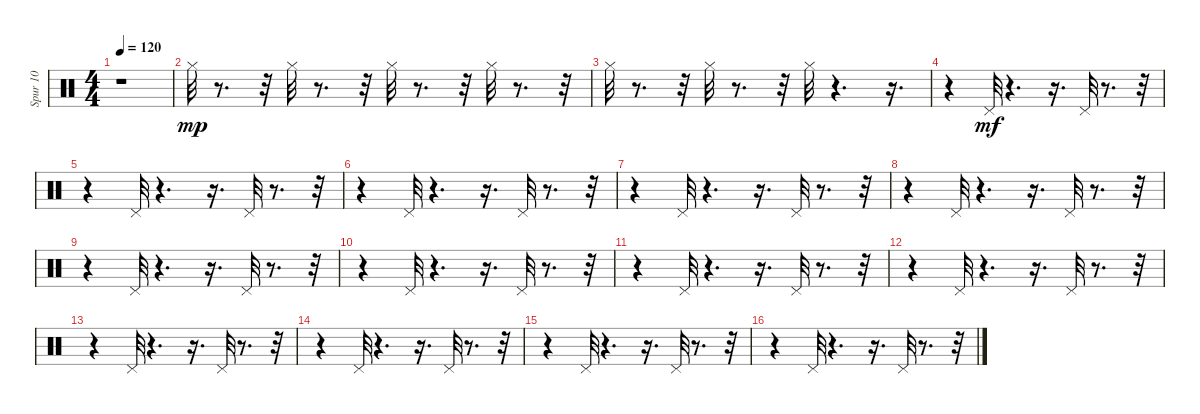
\track ("Spur 10" "Spur 10") {instrument percussion}
\staff {score}
\articulation defaults
\ts (4 4)
\tempo 120
\clef neutral
\ks c
r.1{dy mp} |
"Hi-Hat (closed)".32 r.8{d} r.32 "Hi-Hat (closed)".32 r.8{d} r.32 "Hi-Hat (closed)".32 r.8{d} r.32 "Hi-Hat (closed)".32 r.8{d} r.32 |
"Hi-Hat (closed)".32 r.8{d} r.32 "Hi-Hat (closed)".32 r.8{d} r.32 "Hi-Hat (closed)".32 r.4{d} r.16{d} |
r.4 "Pedal Hi-Hat (hit)".32{dy mf} r.4{d} r.16{d} "Pedal Hi-Hat (hit)".32 r.8{d} r.32 |
r.4 "Pedal Hi-Hat (hit)".32 r.4{d} r.16{d} "Pedal Hi-Hat (hit)".32 r.8{d} r.32 |
r.4 "Pedal Hi-Hat (hit)".32 r.4{d} r.16{d} "Pedal Hi-Hat (hit)".32 r.8{d} r.32 |
r.4 "Pedal Hi-Hat (hit)".32 r.4{d} r.16{d} "Pedal Hi-Hat (hit)".32 r.8{d} r.32 |
r.4 "Pedal Hi-Hat (hit)".32 r.4{d} r.16{d} "Pedal Hi-Hat (hit)".32 r.8{d} r.32 |
r.4 "Pedal Hi-Hat (hit)".32 r.4{d} r.16{d} "Pedal Hi-Hat (hit)".32 r.8{d} r.32 |
r.4 "Pedal Hi-Hat (hit)".32 r.4{d} r.16{d} "Pedal Hi-Hat (hit)".32 r.8{d} r.32 |
r.4 "Pedal Hi-Hat (hit)".32 r.4{d} r.16{d} "Pedal Hi-Hat (hit)".32 r.8{d} r.32 |
r.4 "Pedal Hi-Hat (hit)".32 r.4{d} r.16{d} "Pedal Hi-Hat (hit)".32 r.8{d} r.32 |
r.4 "Pedal Hi-Hat (hit)".32 r.4{d} r.16{d} "Pedal Hi-Hat (hit)".32 r.8{d} r.32 |
r.4 "Pedal Hi-Hat (hit)".32 r.4{d} r.16{d} "Pedal Hi-Hat (hit)".32 r.8{d} r.32 |
r.4 "Pedal Hi-Hat (hit)".32 r.4{d} r.16{d} "Pedal Hi-Hat (hit)".32 r.8{d} r.32 |
r.4 "Pedal Hi-Hat (hit)".32 r.4{d} r.16{d} "Pedal Hi-Hat (hit)".32 r.8{d} r.32
